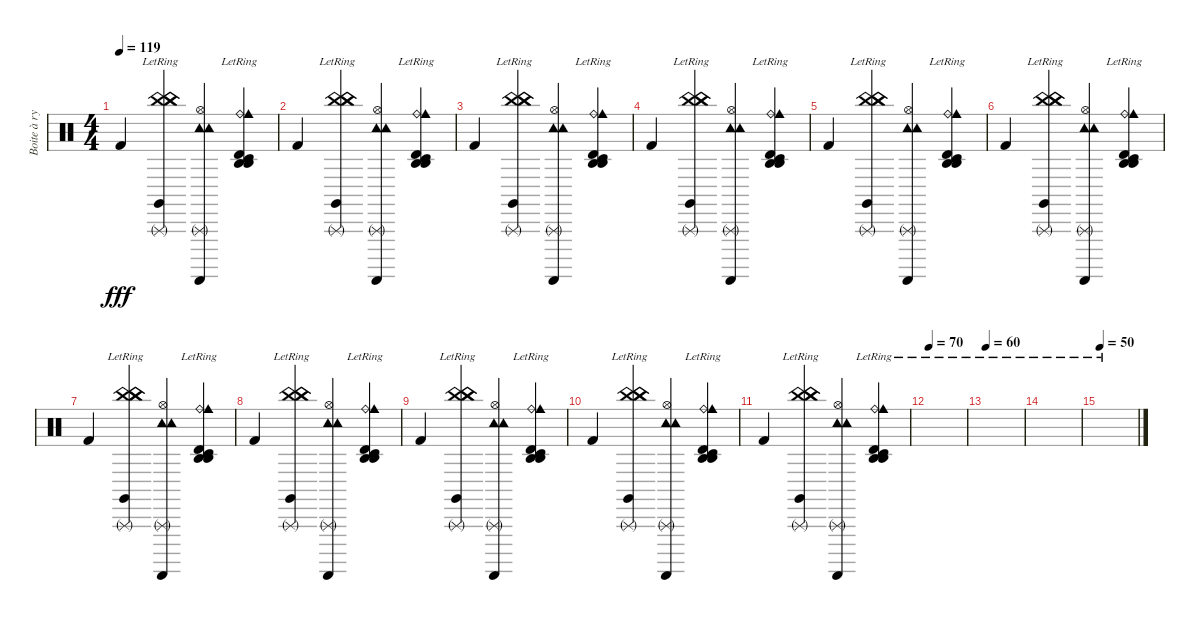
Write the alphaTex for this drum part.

\track ("Boite à rythme" "Boite à ry") {instrument percussion}
\staff {score}
\articulation defaults
\ts (4 4)
\tempo 119
\clef neutral
\ks c "Kick (hit) 2".4{dy fff}
("China (hit)" "China (hit)" "Triangle (rnute)" "Claves (hit)" "China (hit)"{lr}).4 ("Hi-Hat (open)" "Tambourine (hit)" "Triangle (rnute)" "Guiro (scrap-return)" "Tambourine (hit)").4 ("Ride (bell)" "Agogo high (hit)"{lr} "Timbale high (hit)" "Agogo high (hit)" "Cowbell medium (hit)" "Timbale low (hit)").4 |
"Kick (hit) 2".4 ("China (hit)" "China (hit)" "Triangle (rnute)" "Claves (hit)" "China (hit)"{lr}).4 ("Hi-Hat (open)" "Tambourine (hit)" "Triangle (rnute)" "Guiro (scrap-return)" "Tambourine (hit)").4 ("Ride (bell)" "Agogo high (hit)"{lr} "Timbale high (hit)" "Agogo high (hit)" "Cowbell medium (hit)" "Timbale low (hit)").4 |
"Kick (hit) 2".4 ("China (hit)" "China (hit)" "Triangle (rnute)" "Claves (hit)" "China (hit)"{lr}).4 ("Hi-Hat (open)" "Tambourine (hit)" "Triangle (rnute)" "Guiro (scrap-return)" "Tambourine (hit)").4 ("Ride (bell)" "Agogo high (hit)"{lr} "Timbale high (hit)" "Agogo high (hit)" "Cowbell medium (hit)" "Timbale low (hit)").4 |
"Kick (hit) 2".4 ("China (hit)" "China (hit)" "Triangle (rnute)" "Claves (hit)" "China (hit)"{lr}).4 ("Hi-Hat (open)" "Tambourine (hit)" "Triangle (rnute)" "Guiro (scrap-return)" "Tambourine (hit)").4 ("Ride (bell)" "Agogo high (hit)"{lr} "Timbale high (hit)" "Agogo high (hit)" "Cowbell medium (hit)" "Timbale low (hit)").4 |
"Kick (hit) 2".4 ("China (hit)" "China (hit)" "Triangle (rnute)" "Claves (hit)" "China (hit)"{lr}).4 ("Hi-Hat (open)" "Tambourine (hit)" "Triangle (rnute)" "Guiro (scrap-return)" "Tambourine (hit)").4 ("Ride (bell)" "Agogo high (hit)"{lr} "Timbale high (hit)" "Agogo high (hit)" "Cowbell medium (hit)" "Timbale low (hit)").4 |
"Kick (hit) 2".4 ("China (hit)" "China (hit)" "Triangle (rnute)" "Claves (hit)" "China (hit)"{lr}).4 ("Hi-Hat (open)" "Tambourine (hit)" "Triangle (rnute)" "Guiro (scrap-return)" "Tambourine (hit)").4 ("Ride (bell)" "Agogo high (hit)"{lr} "Timbale high (hit)" "Agogo high (hit)" "Cowbell medium (hit)" "Timbale low (hit)").4 |
"Kick (hit) 2".4 ("China (hit)" "China (hit)" "Triangle (rnute)" "Claves (hit)" "China (hit)"{lr}).4 ("Hi-Hat (open)" "Tambourine (hit)" "Triangle (rnute)" "Guiro (scrap-return)" "Tambourine (hit)").4 ("Ride (bell)" "Agogo high (hit)"{lr} "Timbale high (hit)" "Agogo high (hit)" "Cowbell medium (hit)" "Timbale low (hit)").4 |
"Kick (hit) 2".4 ("China (hit)" "China (hit)" "Triangle (rnute)" "Claves (hit)" "China (hit)"{lr}).4 ("Hi-Hat (open)" "Tambourine (hit)" "Triangle (rnute)" "Guiro (scrap-return)" "Tambourine (hit)").4 ("Ride (bell)" "Agogo high (hit)"{lr} "Timbale high (hit)" "Agogo high (hit)" "Cowbell medium (hit)" "Timbale low (hit)").4 |
"Kick (hit) 2".4 ("China (hit)" "China (hit)" "Triangle (rnute)" "Claves (hit)" "China (hit)"{lr}).4 ("Hi-Hat (open)" "Tambourine (hit)" "Triangle (rnute)" "Guiro (scrap-return)" "Tambourine (hit)").4 ("Ride (bell)" "Agogo high (hit)"{lr} "Timbale high (hit)" "Agogo high (hit)" "Cowbell medium (hit)" "Timbale low (hit)").4 |
"Kick (hit) 2".4 ("China (hit)" "China (hit)" "Triangle (rnute)" "Claves (hit)" "China (hit)"{lr}).4 ("Hi-Hat (open)" "Tambourine (hit)" "Triangle (rnute)" "Guiro (scrap-return)" "Tambourine (hit)").4 ("Ride (bell)" "Agogo high (hit)"{lr} "Timbale high (hit)" "Agogo high (hit)" "Cowbell medium (hit)" "Timbale low (hit)").4 |
"Kick (hit) 2".4 ("China (hit)" "China (hit)" "Triangle (rnute)" "Claves (hit)" "China (hit)"{lr}).4 ("Hi-Hat (open)" "Tambourine (hit)" "Triangle (rnute)" "Guiro (scrap-return)" "Tambourine (hit)").4 ("Ride (bell)" "Agogo high (hit)"{lr} "Timbale high (hit)" "Agogo high (hit)" "Cowbell medium (hit)" "Timbale low (hit)").4 |
\tempo 86
\tempo 70
|
\tempo 60
|
|
\tempo 50
